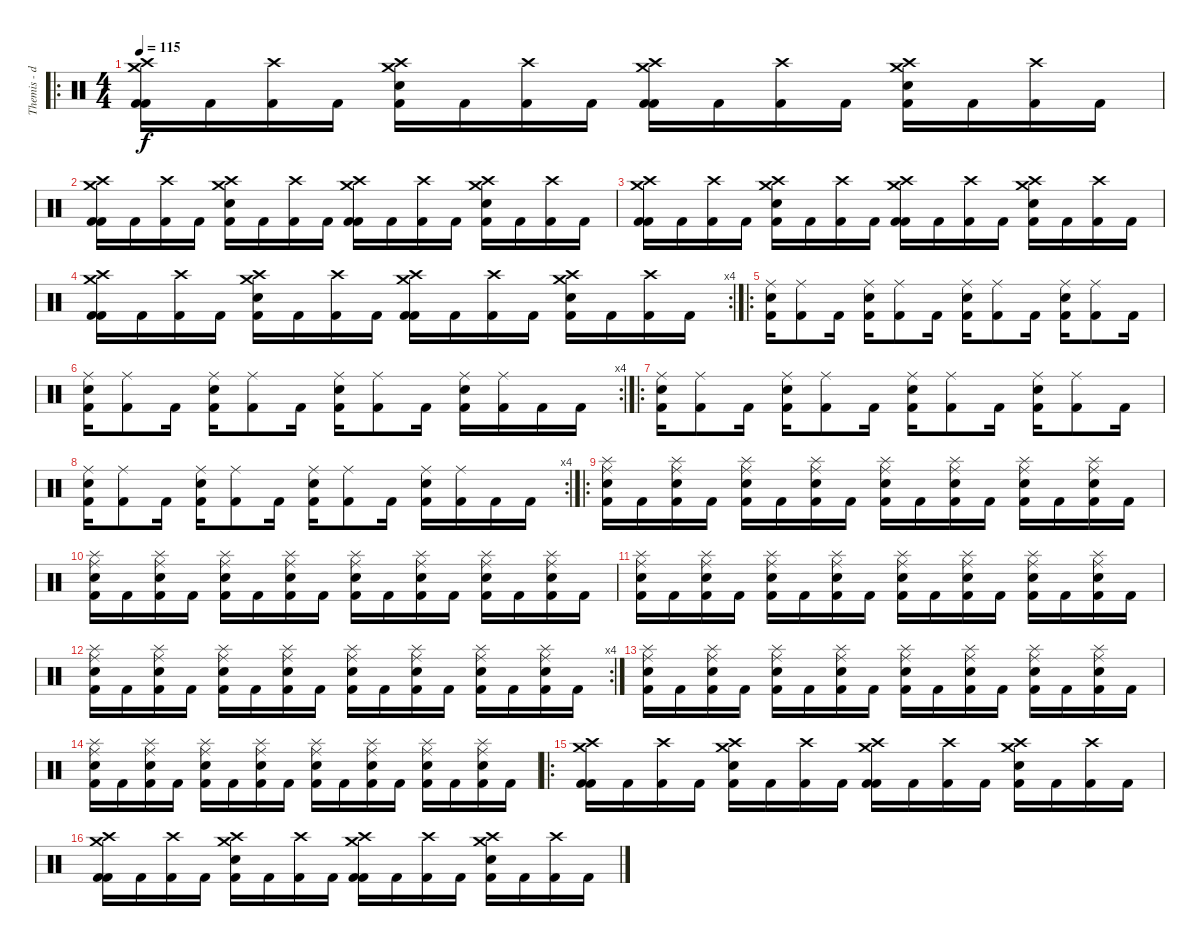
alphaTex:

\track ("Themis - drms" "Themis - d") {instrument percussion}
\staff {score}
\articulation defaults
\ro
\ts (4 4)
\tempo 115
\clef neutral
\ks c
("Crash high (hit)" "Crash medium (hit)" "Kick (hit) 2" "Kick (hit) 2").16{dy f} "Kick (hit) 2".16 ("Crash high (hit)" "Kick (hit) 2").16 "Kick (hit) 2".16 ("Crash high (hit)" "Crash medium (hit)" "Electric Snare (hit)" "Kick (hit) 2").16 "Kick (hit) 2".16 ("Crash high (hit)" "Kick (hit) 2").16 "Kick (hit) 2".16 ("Crash high (hit)" "Crash medium (hit)" "Kick (hit) 2" "Kick (hit) 2").16 "Kick (hit) 2".16 ("Crash high (hit)" "Kick (hit) 2").16 "Kick (hit) 2".16 ("Crash high (hit)" "Crash medium (hit)" "Electric Snare (hit)" "Kick (hit) 2").16 "Kick (hit) 2".16 ("Crash high (hit)" "Kick (hit) 2").16 "Kick (hit) 2".16 |
("Crash high (hit)" "Crash medium (hit)" "Kick (hit) 2" "Kick (hit) 2").16 "Kick (hit) 2".16 ("Crash high (hit)" "Kick (hit) 2").16 "Kick (hit) 2".16 ("Crash high (hit)" "Crash medium (hit)" "Electric Snare (hit)" "Kick (hit) 2").16 "Kick (hit) 2".16 ("Crash high (hit)" "Kick (hit) 2").16 "Kick (hit) 2".16 ("Crash high (hit)" "Crash medium (hit)" "Kick (hit) 2" "Kick (hit) 2").16 "Kick (hit) 2".16 ("Crash high (hit)" "Kick (hit) 2").16 "Kick (hit) 2".16 ("Crash high (hit)" "Crash medium (hit)" "Electric Snare (hit)" "Kick (hit) 2").16 "Kick (hit) 2".16 ("Crash high (hit)" "Kick (hit) 2").16 "Kick (hit) 2".16 |
("Crash high (hit)" "Crash medium (hit)" "Kick (hit) 2" "Kick (hit) 2").16 "Kick (hit) 2".16 ("Crash high (hit)" "Kick (hit) 2").16 "Kick (hit) 2".16 ("Crash high (hit)" "Crash medium (hit)" "Electric Snare (hit)" "Kick (hit) 2").16 "Kick (hit) 2".16 ("Crash high (hit)" "Kick (hit) 2").16 "Kick (hit) 2".16 ("Crash high (hit)" "Crash medium (hit)" "Kick (hit) 2" "Kick (hit) 2").16 "Kick (hit) 2".16 ("Crash high (hit)" "Kick (hit) 2").16 "Kick (hit) 2".16 ("Crash high (hit)" "Crash medium (hit)" "Electric Snare (hit)" "Kick (hit) 2").16 "Kick (hit) 2".16 ("Crash high (hit)" "Kick (hit) 2").16 "Kick (hit) 2".16 |
\rc 4
("Crash high (hit)" "Crash medium (hit)" "Kick (hit) 2" "Kick (hit) 2").16 "Kick (hit) 2".16 ("Crash high (hit)" "Kick (hit) 2").16 "Kick (hit) 2".16 ("Crash high (hit)" "Crash medium (hit)" "Electric Snare (hit)" "Kick (hit) 2").16 "Kick (hit) 2".16 ("Crash high (hit)" "Kick (hit) 2").16 "Kick (hit) 2".16 ("Crash high (hit)" "Crash medium (hit)" "Kick (hit) 2" "Kick (hit) 2").16 "Kick (hit) 2".16 ("Crash high (hit)" "Kick (hit) 2").16 "Kick (hit) 2".16 ("Crash high (hit)" "Crash medium (hit)" "Electric Snare (hit)" "Kick (hit) 2").16 "Kick (hit) 2".16 ("Crash high (hit)" "Kick (hit) 2").16 "Kick (hit) 2".16 |
\ro
("Ride (middle)" "Electric Snare (hit)" "Kick (hit) 2").16 ("Ride (middle)" "Kick (hit) 2").8 "Kick (hit) 2".16 ("Ride (middle)" "Electric Snare (hit)" "Kick (hit) 2").16 ("Ride (middle)" "Kick (hit) 2").8 "Kick (hit) 2".16 ("Ride (middle)" "Electric Snare (hit)" "Kick (hit) 2").16 ("Ride (middle)" "Kick (hit) 2").8 "Kick (hit) 2".16 ("Ride (middle)" "Electric Snare (hit)" "Kick (hit) 2").16 ("Ride (middle)" "Kick (hit) 2").8 "Kick (hit) 2".16 |
\rc 4
("Ride (middle)" "Electric Snare (hit)" "Kick (hit) 2").16 ("Ride (middle)" "Kick (hit) 2").8 "Kick (hit) 2".16 ("Ride (middle)" "Electric Snare (hit)" "Kick (hit) 2").16 ("Ride (middle)" "Kick (hit) 2").8 "Kick (hit) 2".16 ("Ride (middle)" "Electric Snare (hit)" "Kick (hit) 2").16 ("Ride (middle)" "Kick (hit) 2").8 "Kick (hit) 2".16 ("Ride (middle)" "Electric Snare (hit)" "Kick (hit) 2").16 ("Ride (middle)" "Kick (hit) 2").16 "Kick (hit) 2".16 "Kick (hit) 2".16 |
\ro
("Ride (middle)" "Electric Snare (hit)" "Kick (hit) 2").16 ("Ride (middle)" "Kick (hit) 2").8 "Kick (hit) 2".16 ("Ride (middle)" "Electric Snare (hit)" "Kick (hit) 2").16 ("Ride (middle)" "Kick (hit) 2").8 "Kick (hit) 2".16 ("Ride (middle)" "Electric Snare (hit)" "Kick (hit) 2").16 ("Ride (middle)" "Kick (hit) 2").8 "Kick (hit) 2".16 ("Ride (middle)" "Electric Snare (hit)" "Kick (hit) 2").16 ("Ride (middle)" "Kick (hit) 2").8 "Kick (hit) 2".16 |
\rc 4
("Ride (middle)" "Electric Snare (hit)" "Kick (hit) 2").16 ("Ride (middle)" "Kick (hit) 2").8 "Kick (hit) 2".16 ("Ride (middle)" "Electric Snare (hit)" "Kick (hit) 2").16 ("Ride (middle)" "Kick (hit) 2").8 "Kick (hit) 2".16 ("Ride (middle)" "Electric Snare (hit)" "Kick (hit) 2").16 ("Ride (middle)" "Kick (hit) 2").8 "Kick (hit) 2".16 ("Ride (middle)" "Electric Snare (hit)" "Kick (hit) 2").16 ("Ride (middle)" "Kick (hit) 2").16 "Kick (hit) 2".16 "Kick (hit) 2".16 |
\ro
("Splash (hit)" "Ride (middle)" "Electric Snare (hit)" "Kick (hit) 2").16 "Kick (hit) 2".16 ("Splash (hit)" "Ride (middle)" "Electric Snare (hit)" "Kick (hit) 2").16 "Kick (hit) 2".16 ("Splash (hit)" "Ride (middle)" "Electric Snare (hit)" "Kick (hit) 2").16 "Kick (hit) 2".16 ("Splash (hit)" "Ride (middle)" "Electric Snare (hit)" "Kick (hit) 2").16 "Kick (hit) 2".16 ("Splash (hit)" "Ride (middle)" "Electric Snare (hit)" "Kick (hit) 2").16 "Kick (hit) 2".16 ("Splash (hit)" "Ride (middle)" "Electric Snare (hit)" "Kick (hit) 2").16 "Kick (hit) 2".16 ("Splash (hit)" "Ride (middle)" "Electric Snare (hit)" "Kick (hit) 2").16 "Kick (hit) 2".16 ("Splash (hit)" "Ride (middle)" "Electric Snare (hit)" "Kick (hit) 2").16 "Kick (hit) 2".16 |
("Splash (hit)" "Ride (middle)" "Electric Snare (hit)" "Kick (hit) 2").16 "Kick (hit) 2".16 ("Splash (hit)" "Ride (middle)" "Electric Snare (hit)" "Kick (hit) 2").16 "Kick (hit) 2".16 ("Splash (hit)" "Ride (middle)" "Electric Snare (hit)" "Kick (hit) 2").16 "Kick (hit) 2".16 ("Splash (hit)" "Ride (middle)" "Electric Snare (hit)" "Kick (hit) 2").16 "Kick (hit) 2".16 ("Splash (hit)" "Ride (middle)" "Electric Snare (hit)" "Kick (hit) 2").16 "Kick (hit) 2".16 ("Splash (hit)" "Ride (middle)" "Electric Snare (hit)" "Kick (hit) 2").16 "Kick (hit) 2".16 ("Splash (hit)" "Ride (middle)" "Electric Snare (hit)" "Kick (hit) 2").16 "Kick (hit) 2".16 ("Splash (hit)" "Ride (middle)" "Electric Snare (hit)" "Kick (hit) 2").16 "Kick (hit) 2".16 |
("Splash (hit)" "Ride (middle)" "Electric Snare (hit)" "Kick (hit) 2").16 "Kick (hit) 2".16 ("Splash (hit)" "Ride (middle)" "Electric Snare (hit)" "Kick (hit) 2").16 "Kick (hit) 2".16 ("Splash (hit)" "Ride (middle)" "Electric Snare (hit)" "Kick (hit) 2").16 "Kick (hit) 2".16 ("Splash (hit)" "Ride (middle)" "Electric Snare (hit)" "Kick (hit) 2").16 "Kick (hit) 2".16 ("Splash (hit)" "Ride (middle)" "Electric Snare (hit)" "Kick (hit) 2").16 "Kick (hit) 2".16 ("Splash (hit)" "Ride (middle)" "Electric Snare (hit)" "Kick (hit) 2").16 "Kick (hit) 2".16 ("Splash (hit)" "Ride (middle)" "Electric Snare (hit)" "Kick (hit) 2").16 "Kick (hit) 2".16 ("Splash (hit)" "Ride (middle)" "Electric Snare (hit)" "Kick (hit) 2").16 "Kick (hit) 2".16 |
\rc 4
("Splash (hit)" "Ride (middle)" "Electric Snare (hit)" "Kick (hit) 2").16 "Kick (hit) 2".16 ("Splash (hit)" "Ride (middle)" "Electric Snare (hit)" "Kick (hit) 2").16 "Kick (hit) 2".16 ("Splash (hit)" "Ride (middle)" "Electric Snare (hit)" "Kick (hit) 2").16 "Kick (hit) 2".16 ("Splash (hit)" "Ride (middle)" "Electric Snare (hit)" "Kick (hit) 2").16 "Kick (hit) 2".16 ("Splash (hit)" "Ride (middle)" "Electric Snare (hit)" "Kick (hit) 2").16 "Kick (hit) 2".16 ("Splash (hit)" "Ride (middle)" "Electric Snare (hit)" "Kick (hit) 2").16 "Kick (hit) 2".16 ("Splash (hit)" "Ride (middle)" "Electric Snare (hit)" "Kick (hit) 2").16 "Kick (hit) 2".16 ("Splash (hit)" "Ride (middle)" "Electric Snare (hit)" "Kick (hit) 2").16 "Kick (hit) 2".16 |
("Splash (hit)" "Ride (middle)" "Electric Snare (hit)" "Kick (hit) 2").16 "Kick (hit) 2".16 ("Splash (hit)" "Ride (middle)" "Electric Snare (hit)" "Kick (hit) 2").16 "Kick (hit) 2".16 ("Splash (hit)" "Ride (middle)" "Electric Snare (hit)" "Kick (hit) 2").16 "Kick (hit) 2".16 ("Splash (hit)" "Ride (middle)" "Electric Snare (hit)" "Kick (hit) 2").16 "Kick (hit) 2".16 ("Splash (hit)" "Ride (middle)" "Electric Snare (hit)" "Kick (hit) 2").16 "Kick (hit) 2".16 ("Splash (hit)" "Ride (middle)" "Electric Snare (hit)" "Kick (hit) 2").16 "Kick (hit) 2".16 ("Splash (hit)" "Ride (middle)" "Electric Snare (hit)" "Kick (hit) 2").16 "Kick (hit) 2".16 ("Splash (hit)" "Ride (middle)" "Electric Snare (hit)" "Kick (hit) 2").16 "Kick (hit) 2".16 |
("Splash (hit)" "Ride (middle)" "Electric Snare (hit)" "Kick (hit) 2").16 "Kick (hit) 2".16 ("Splash (hit)" "Ride (middle)" "Electric Snare (hit)" "Kick (hit) 2").16 "Kick (hit) 2".16 ("Splash (hit)" "Ride (middle)" "Electric Snare (hit)" "Kick (hit) 2").16 "Kick (hit) 2".16 ("Splash (hit)" "Ride (middle)" "Electric Snare (hit)" "Kick (hit) 2").16 "Kick (hit) 2".16 ("Splash (hit)" "Ride (middle)" "Electric Snare (hit)" "Kick (hit) 2").16 "Kick (hit) 2".16 ("Splash (hit)" "Ride (middle)" "Electric Snare (hit)" "Kick (hit) 2").16 "Kick (hit) 2".16 ("Splash (hit)" "Ride (middle)" "Electric Snare (hit)" "Kick (hit) 2").16 "Kick (hit) 2".16 ("Splash (hit)" "Ride (middle)" "Electric Snare (hit)" "Kick (hit) 2").16 "Kick (hit) 2".16 |
\ro
("Crash high (hit)" "Crash medium (hit)" "Kick (hit) 2" "Kick (hit) 2").16 "Kick (hit) 2".16 ("Crash high (hit)" "Kick (hit) 2").16 "Kick (hit) 2".16 ("Crash high (hit)" "Crash medium (hit)" "Electric Snare (hit)" "Kick (hit) 2").16 "Kick (hit) 2".16 ("Crash high (hit)" "Kick (hit) 2").16 "Kick (hit) 2".16 ("Crash high (hit)" "Crash medium (hit)" "Kick (hit) 2" "Kick (hit) 2").16 "Kick (hit) 2".16 ("Crash high (hit)" "Kick (hit) 2").16 "Kick (hit) 2".16 ("Crash high (hit)" "Crash medium (hit)" "Electric Snare (hit)" "Kick (hit) 2").16 "Kick (hit) 2".16 ("Crash high (hit)" "Kick (hit) 2").16 "Kick (hit) 2".16 |
("Crash high (hit)" "Crash medium (hit)" "Kick (hit) 2" "Kick (hit) 2").16 "Kick (hit) 2".16 ("Crash high (hit)" "Kick (hit) 2").16 "Kick (hit) 2".16 ("Crash high (hit)" "Crash medium (hit)" "Electric Snare (hit)" "Kick (hit) 2").16 "Kick (hit) 2".16 ("Crash high (hit)" "Kick (hit) 2").16 "Kick (hit) 2".16 ("Crash high (hit)" "Crash medium (hit)" "Kick (hit) 2" "Kick (hit) 2").16 "Kick (hit) 2".16 ("Crash high (hit)" "Kick (hit) 2").16 "Kick (hit) 2".16 ("Crash high (hit)" "Crash medium (hit)" "Electric Snare (hit)" "Kick (hit) 2").16 "Kick (hit) 2".16 ("Crash high (hit)" "Kick (hit) 2").16 "Kick (hit) 2".16
